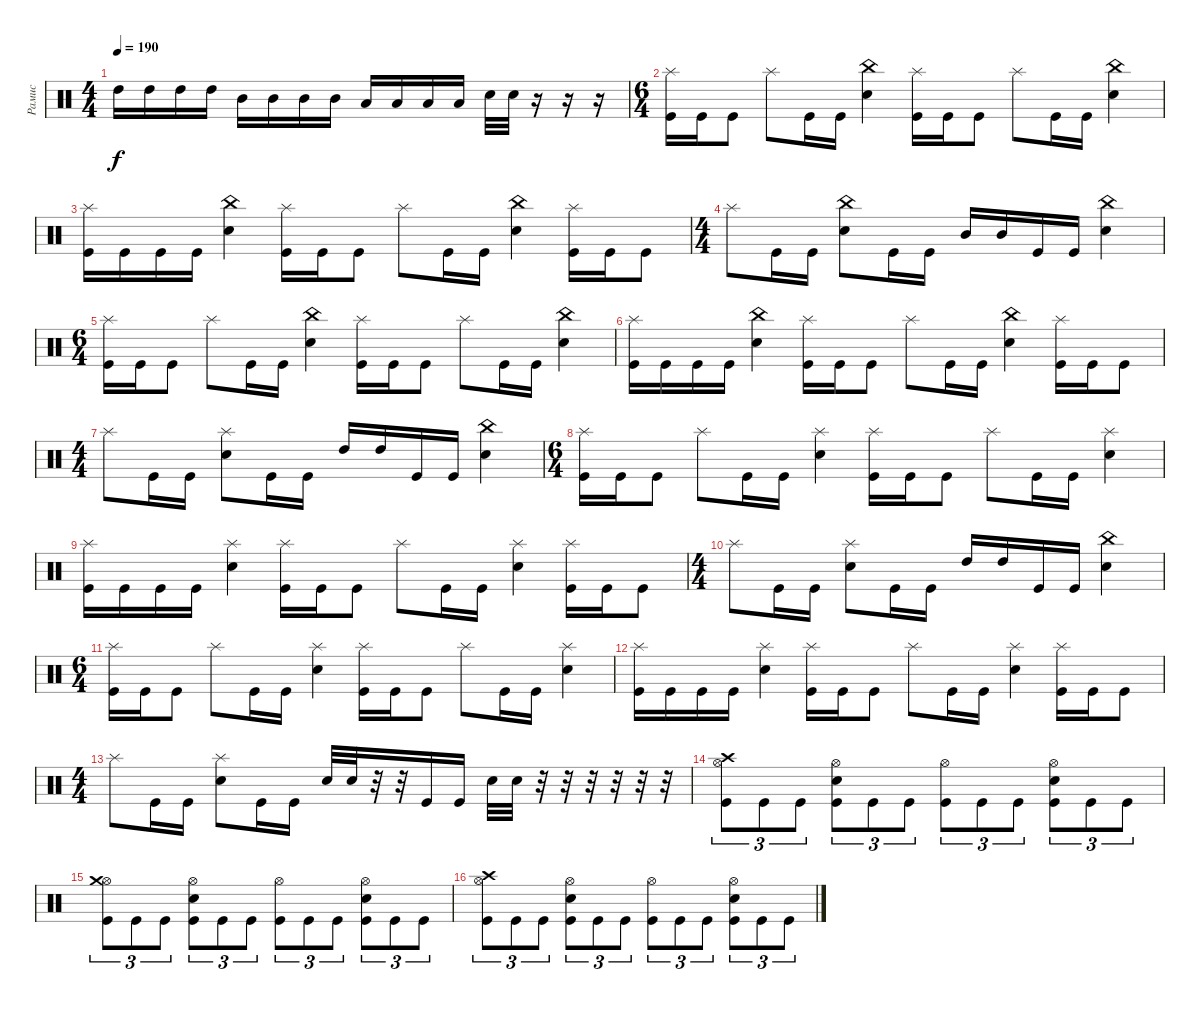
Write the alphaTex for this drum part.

\track ("Рамис" "Рамис") {instrument percussion}
\staff {score}
\articulation defaults
\ts (4 4)
\tempo 190
\clef neutral
\ks c "High Tom (hit)".16{dy f} "High Tom (hit)".16 "High Tom (hit)".16 "High Tom (hit)".16 "Mid Tom (hit)".16 "Mid Tom (hit)".16 "Mid Tom (hit)".16 "Mid Tom (hit)".16 "Low Tom (hit)".16 "Low Tom (hit)".16 "Low Tom (hit)".16 "Low Tom (hit)".16 "Electric Snare (hit)".32 "Electric Snare (hit)".32
r.16 r.16 r.16 |
\ts (6 4)
("Splash (hit)" "Kick (hit)").16 "Kick (hit)".16 "Kick (hit)".8 "Splash (hit)".8 "Kick (hit)".16 "Kick (hit)".16 ("China (hit)" "Electric Snare (hit)").4 ("Splash (hit)" "Kick (hit)").16 "Kick (hit)".16 "Kick (hit)".8 "Splash (hit)".8 "Kick (hit)".16 "Kick (hit)".16 ("China (hit)" "Electric Snare (hit)").4 |
("Splash (hit)" "Kick (hit)").16 "Kick (hit)".16 "Kick (hit)".16 "Kick (hit)".16 ("China (hit)" "Electric Snare (hit)").4 ("Splash (hit)" "Kick (hit)").16 "Kick (hit)".16 "Kick (hit)".8 "Splash (hit)".8 "Kick (hit)".16 "Kick (hit)".16 ("China (hit)" "Electric Snare (hit)").4 ("Splash (hit)" "Kick (hit)").16 "Kick (hit)".16 "Kick (hit)".8 |
\ts (4 4)
"Splash (hit)".8 "Kick (hit)".16 "Kick (hit)".16 ("China (hit)" "Electric Snare (hit)").8 "Kick (hit)".16 "Kick (hit)".16 "Mid Tom (hit)".16 "Mid Tom (hit)".16 "Kick (hit)".16 "Kick (hit)".16 ("China (hit)" "Electric Snare (hit)").4 |
\ts (6 4)
("Splash (hit)" "Kick (hit)").16 "Kick (hit)".16 "Kick (hit)".8 "Splash (hit)".8 "Kick (hit)".16 "Kick (hit)".16 ("China (hit)" "Electric Snare (hit)").4 ("Splash (hit)" "Kick (hit)").16 "Kick (hit)".16 "Kick (hit)".8 "Splash (hit)".8 "Kick (hit)".16 "Kick (hit)".16 ("China (hit)" "Electric Snare (hit)").4 |
("Splash (hit)" "Kick (hit)").16 "Kick (hit)".16 "Kick (hit)".16 "Kick (hit)".16 ("China (hit)" "Electric Snare (hit)").4 ("Splash (hit)" "Kick (hit)").16 "Kick (hit)".16 "Kick (hit)".8 "Splash (hit)".8 "Kick (hit)".16 "Kick (hit)".16 ("China (hit)" "Electric Snare (hit)").4 ("Splash (hit)" "Kick (hit)").16 "Kick (hit)".16 "Kick (hit)".8 |
\ts (4 4)
"Splash (hit)".8 "Kick (hit)".16 "Kick (hit)".16 ("Splash (hit)" "Electric Snare (hit)").8 "Kick (hit)".16 "Kick (hit)".16 "High Tom (hit)".16 "High Tom (hit)".16 "Kick (hit)".16 "Kick (hit)".16 ("China (hit)" "Electric Snare (hit)").4 |
\ts (6 4)
("Splash (hit)" "Kick (hit)").16 "Kick (hit)".16 "Kick (hit)".8 "Splash (hit)".8 "Kick (hit)".16 "Kick (hit)".16 ("Splash (hit)" "Electric Snare (hit)").4 ("Splash (hit)" "Kick (hit)").16 "Kick (hit)".16 "Kick (hit)".8 "Splash (hit)".8 "Kick (hit)".16 "Kick (hit)".16 ("Splash (hit)" "Electric Snare (hit)").4 |
("Splash (hit)" "Kick (hit)").16 "Kick (hit)".16 "Kick (hit)".16 "Kick (hit)".16 ("Splash (hit)" "Electric Snare (hit)").4 ("Splash (hit)" "Kick (hit)").16 "Kick (hit)".16 "Kick (hit)".8 "Splash (hit)".8 "Kick (hit)".16 "Kick (hit)".16 ("Splash (hit)" "Electric Snare (hit)").4 ("Splash (hit)" "Kick (hit)").16 "Kick (hit)".16 "Kick (hit)".8 |
\ts (4 4)
"Splash (hit)".8 "Kick (hit)".16 "Kick (hit)".16 ("Splash (hit)" "Electric Snare (hit)").8 "Kick (hit)".16 "Kick (hit)".16 "High Tom (hit)".16 "High Tom (hit)".16 "Kick (hit)".16 "Kick (hit)".16 ("China (hit)" "Electric Snare (hit)").4 |
\ts (6 4)
("Splash (hit)" "Kick (hit)").16 "Kick (hit)".16 "Kick (hit)".8 "Splash (hit)".8 "Kick (hit)".16 "Kick (hit)".16 ("Splash (hit)" "Electric Snare (hit)").4 ("Splash (hit)" "Kick (hit)").16 "Kick (hit)".16 "Kick (hit)".8 "Splash (hit)".8 "Kick (hit)".16 "Kick (hit)".16 ("Splash (hit)" "Electric Snare (hit)").4 |
("Splash (hit)" "Kick (hit)").16 "Kick (hit)".16 "Kick (hit)".16 "Kick (hit)".16 ("Splash (hit)" "Electric Snare (hit)").4 ("Splash (hit)" "Kick (hit)").16 "Kick (hit)".16 "Kick (hit)".8 "Splash (hit)".8 "Kick (hit)".16 "Kick (hit)".16 ("Splash (hit)" "Electric Snare (hit)").4 ("Splash (hit)" "Kick (hit)").16 "Kick (hit)".16 "Kick (hit)".8 |
\ts (4 4)
"Splash (hit)".8 "Kick (hit)".16 "Kick (hit)".16 ("Splash (hit)" "Electric Snare (hit)").8 "Kick (hit)".16 "Kick (hit)".16 "Electric Snare (hit)".32 "Electric Snare (hit)".32 r.32 r.32 "Kick (hit)".16 "Kick (hit)".16 "Electric Snare (hit)".32 "Electric Snare (hit)".32 r.32 r.32 r.32 r.32 r.32 r.32 |
("Crash high (hit)" "Hi-Hat (open)" "Kick (hit)").8{tu (3 2)} "Kick (hit)".8{tu (3 2)} "Kick (hit)".8{tu (3 2)} ("Hi-Hat (open)" "Electric Snare (hit)" "Kick (hit)").8{tu (3 2)} "Kick (hit)".8{tu (3 2)} "Kick (hit)".8{tu (3 2)} ("Hi-Hat (open)" "Kick (hit)").8{tu (3 2)} "Kick (hit)".8{tu (3 2)} "Kick (hit)".8{tu (3 2)} ("Hi-Hat (open)" "Electric Snare (hit)" "Kick (hit)").8{tu (3 2)} "Kick (hit)".8{tu (3 2)} "Kick (hit)".8{tu (3 2)} |
("Hi-Hat (open)" "Crash medium (hit)" "Kick (hit)").8{tu (3 2)} "Kick (hit)".8{tu (3 2)} "Kick (hit)".8{tu (3 2)} ("Hi-Hat (open)" "Electric Snare (hit)" "Kick (hit)").8{tu (3 2)} "Kick (hit)".8{tu (3 2)} "Kick (hit)".8{tu (3 2)} ("Hi-Hat (open)" "Kick (hit)").8{tu (3 2)} "Kick (hit)".8{tu (3 2)} "Kick (hit)".8{tu (3 2)} ("Hi-Hat (open)" "Electric Snare (hit)" "Kick (hit)").8{tu (3 2)} "Kick (hit)".8{tu (3 2)} "Kick (hit)".8{tu (3 2)} |
("Hi-Hat (open)" "Crash high (hit)" "Kick (hit)").8{tu (3 2)} "Kick (hit)".8{tu (3 2)} "Kick (hit)".8{tu (3 2)} ("Hi-Hat (open)" "Electric Snare (hit)" "Kick (hit)").8{tu (3 2)} "Kick (hit)".8{tu (3 2)} "Kick (hit)".8{tu (3 2)} ("Hi-Hat (open)" "Kick (hit)").8{tu (3 2)} "Kick (hit)".8{tu (3 2)} "Kick (hit)".8{tu (3 2)} ("Hi-Hat (open)" "Electric Snare (hit)" "Kick (hit)").8{tu (3 2)} "Kick (hit)".8{tu (3 2)} "Kick (hit)".8{tu (3 2)}
